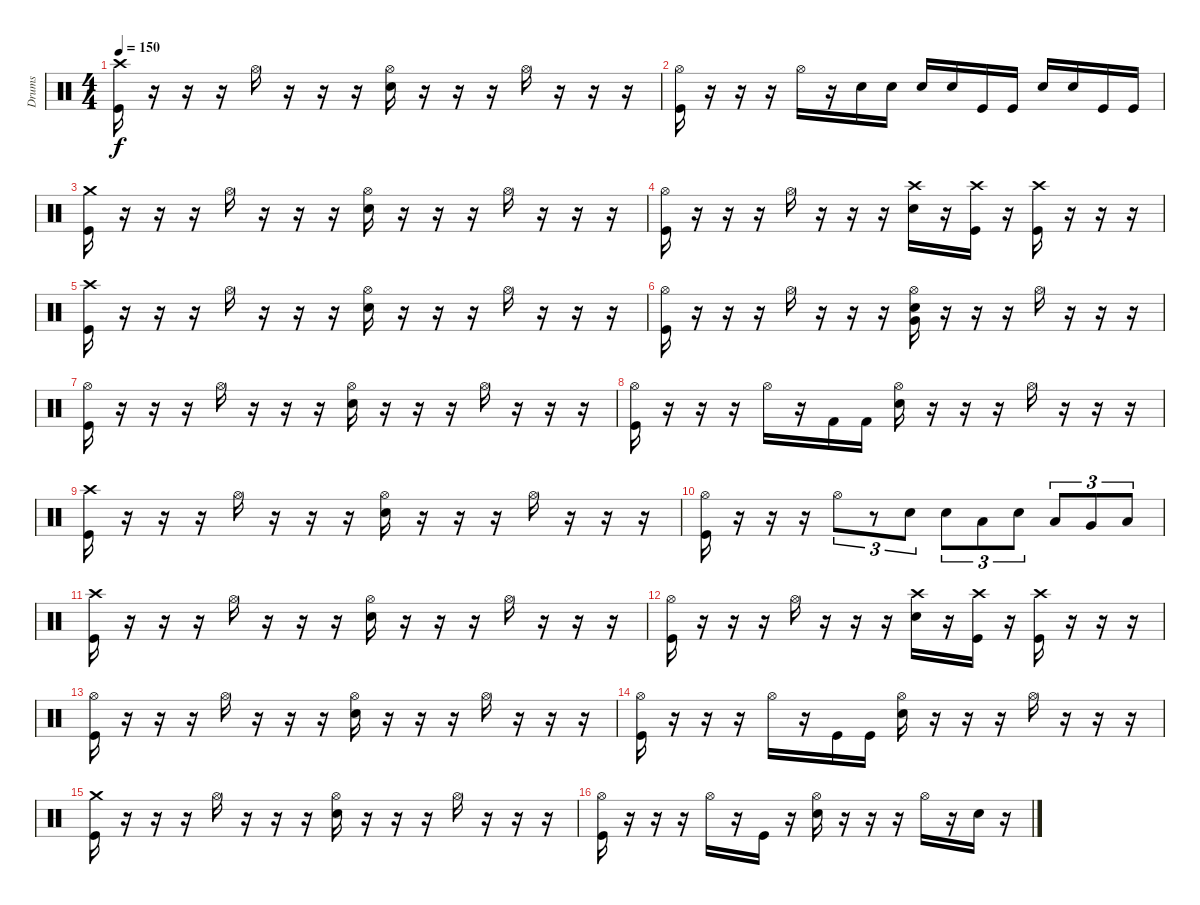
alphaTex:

\track ("Drums" "Drums") {instrument percussion}
\staff {score}
\articulation defaults
\ts (4 4)
\tempo 150
\clef neutral
\ks c
("Crash high (hit)" "Kick (hit)").16{dy f} r.16 r.16 r.16 "Hi-Hat (open)".16 r.16 r.16 r.16 ("Hi-Hat (open)" "Snare (hit) 2").16 r.16 r.16 r.16 "Hi-Hat (open)".16 r.16 r.16 r.16 |
("Hi-Hat (open)" "Kick (hit)").16 r.16 r.16 r.16 "Hi-Hat (open)".16 r.16 "Snare (hit) 2".16 "Snare (hit) 2".16 "Snare (hit) 2".16 "Snare (hit) 2".16 "Kick (hit)".16 "Kick (hit)".16 "Snare (hit) 2".16 "Snare (hit) 2".16 "Kick (hit)".16 "Kick (hit)".16 |
("Crash medium (hit)" "Kick (hit)").16 r.16 r.16 r.16 "Hi-Hat (open)".16 r.16 r.16 r.16 ("Hi-Hat (open)" "Snare (hit) 2").16 r.16 r.16 r.16 "Hi-Hat (open)".16 r.16 r.16 r.16 |
("Hi-Hat (open)" "Kick (hit)").16 r.16 r.16 r.16 "Hi-Hat (open)".16 r.16 r.16 r.16 ("Crash high (hit)" "Snare (hit) 2").16 r.16 ("Crash high (hit)" "Kick (hit)").16 r.16 ("Crash high (hit)" "Kick (hit)").16 r.16 r.16 r.16 |
("Crash high (hit)" "Kick (hit)").16 r.16 r.16 r.16 "Hi-Hat (open)".16 r.16 r.16 r.16 ("Hi-Hat (open)" "Snare (hit) 2").16 r.16 r.16 r.16 "Hi-Hat (open)".16 r.16 r.16 r.16 |
("Hi-Hat (open)" "Kick (hit)").16 r.16 r.16 r.16 "Hi-Hat (open)".16 r.16 r.16 r.16 ("Hi-Hat (open)" "Snare (hit) 2" "Very Low Tom (hit)").16 r.16 r.16 r.16 "Hi-Hat (open)".16 r.16 r.16 r.16 |
("Hi-Hat (open)" "Kick (hit)").16 r.16 r.16 r.16 "Hi-Hat (open)".16 r.16 r.16 r.16 ("Hi-Hat (open)" "Snare (hit) 2").16 r.16 r.16 r.16 "Hi-Hat (open)".16 r.16 r.16 r.16 |
("Hi-Hat (open)" "Kick (hit)").16 r.16 r.16 r.16 "Hi-Hat (open)".16 r.16 "Kick (hit) 2".16 "Kick (hit) 2".16 ("Hi-Hat (open)" "Snare (hit) 2").16 r.16 r.16 r.16 "Hi-Hat (open)".16 r.16 r.16 r.16 |
("Crash high (hit)" "Kick (hit)").16 r.16 r.16 r.16 "Hi-Hat (open)".16 r.16 r.16 r.16 ("Hi-Hat (open)" "Snare (hit) 2").16 r.16 r.16 r.16 "Hi-Hat (open)".16 r.16 r.16 r.16 |
("Hi-Hat (open)" "Kick (hit)").16 r.16 r.16 r.16 "Hi-Hat (open)".8{tu (3 2)} r.8{tu (3 2)} "Snare (hit) 2".8{tu (3 2)} "Snare (hit) 2".8{tu (3 2)} "Low Tom (hit)".8{tu (3 2)} "Snare (hit) 2".8{tu (3 2)} "Low Tom (hit)".8{tu (3 2)} "Very Low Tom (hit)".8{tu (3 2)} "Low Floor Tom (hit)".8{tu (3 2)} |
("Crash high (hit)" "Kick (hit)").16 r.16 r.16 r.16 "Hi-Hat (open)".16 r.16 r.16 r.16 ("Hi-Hat (open)" "Snare (hit) 2").16 r.16 r.16 r.16 "Hi-Hat (open)".16 r.16 r.16 r.16 |
("Hi-Hat (open)" "Kick (hit)").16 r.16 r.16 r.16 "Hi-Hat (open)".16 r.16 r.16 r.16 ("Crash high (hit)" "Snare (hit) 2").16 r.16 ("Crash high (hit)" "Kick (hit)").16 r.16 ("Crash high (hit)" "Kick (hit)").16 r.16 r.16 r.16 |
("Hi-Hat (open)" "Kick (hit)").16 r.16 r.16 r.16 "Hi-Hat (open)".16 r.16 r.16 r.16 ("Hi-Hat (open)" "Snare (hit) 2").16 r.16 r.16 r.16 "Hi-Hat (open)".16 r.16 r.16 r.16 |
("Hi-Hat (open)" "Kick (hit)").16 r.16 r.16 r.16 "Hi-Hat (open)".16 r.16 "Kick (hit)".16 "Kick (hit)".16 ("Hi-Hat (open)" "Snare (hit) 2").16 r.16 r.16 r.16 "Hi-Hat (open)".16 r.16 r.16 r.16 |
("Crash medium (hit)" "Kick (hit)").16 r.16 r.16 r.16 "Hi-Hat (open)".16 r.16 r.16 r.16 ("Hi-Hat (open)" "Snare (hit) 2").16 r.16 r.16 r.16 "Hi-Hat (open)".16 r.16 r.16 r.16 |
("Hi-Hat (open)" "Kick (hit)").16 r.16 r.16 r.16 "Hi-Hat (open)".16 r.16 "Kick (hit)".16 r.16 ("Hi-Hat (open)" "Snare (hit) 2").16 r.16 r.16 r.16 "Hi-Hat (open)".16 r.16 "Snare (hit) 2".16 r.16
